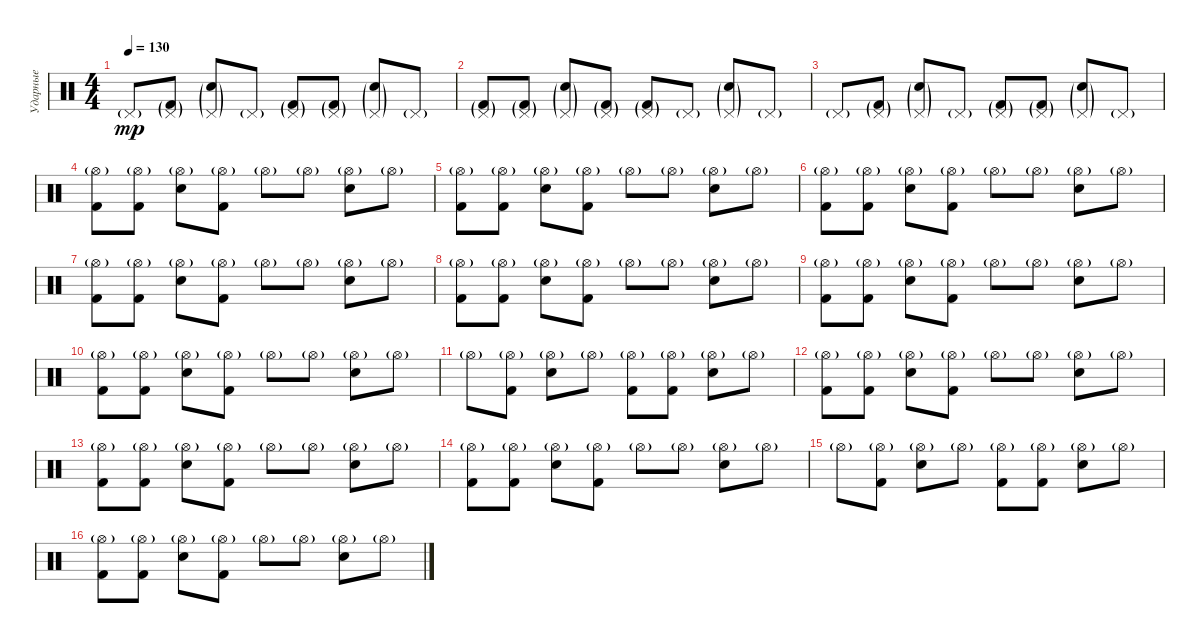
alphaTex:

\track ("Ударные" "Ударные") {instrument percussion}
\staff {score}
\articulation defaults
\ts (4 4)
\tempo 130
\clef neutral
\ks c "Pedal Hi-Hat (hit)"{g}.8{dy mp}
("Kick (hit) 2"{g} "Pedal Hi-Hat (hit)"{g}).8 ("Snare (hit) 2"{g} "Pedal Hi-Hat (hit)"{g}).8 "Pedal Hi-Hat (hit)"{g}.8 ("Kick (hit) 2"{g} "Pedal Hi-Hat (hit)"{g}).8 ("Kick (hit) 2"{g} "Pedal Hi-Hat (hit)"{g}).8 ("Snare (hit) 2"{g} "Pedal Hi-Hat (hit)"{g}).8 "Pedal Hi-Hat (hit)"{g}.8 |
("Kick (hit) 2"{g} "Pedal Hi-Hat (hit)"{g}).8 ("Kick (hit) 2"{g} "Pedal Hi-Hat (hit)"{g}).8 ("Snare (hit) 2"{g} "Pedal Hi-Hat (hit)"{g}).8 ("Kick (hit) 2"{g} "Pedal Hi-Hat (hit)"{g}).8 ("Kick (hit) 2"{g} "Pedal Hi-Hat (hit)"{g}).8 "Pedal Hi-Hat (hit)"{g}.8 ("Snare (hit) 2"{g} "Pedal Hi-Hat (hit)"{g}).8 "Pedal Hi-Hat (hit)"{g}.8 |
"Pedal Hi-Hat (hit)"{g}.8 ("Kick (hit) 2"{g} "Pedal Hi-Hat (hit)"{g}).8 ("Snare (hit) 2"{g} "Pedal Hi-Hat (hit)"{g}).8 "Pedal Hi-Hat (hit)"{g}.8 ("Kick (hit) 2"{g} "Pedal Hi-Hat (hit)"{g}).8 ("Kick (hit) 2"{g} "Pedal Hi-Hat (hit)"{g}).8 ("Snare (hit) 2"{g} "Pedal Hi-Hat (hit)"{g}).8 "Pedal Hi-Hat (hit)"{g}.8 |
("Kick (hit) 2" "Hi-Hat (open)"{g}).8{volume 13} ("Kick (hit) 2" "Hi-Hat (open)"{g}).8 ("Electric Snare (hit)" "Hi-Hat (open)"{g}).8 ("Kick (hit) 2" "Hi-Hat (open)"{g}).8 "Hi-Hat (open)"{g}.8 "Hi-Hat (open)"{g}.8 ("Electric Snare (hit)" "Hi-Hat (open)"{g}).8 "Hi-Hat (open)"{g}.8 |
("Kick (hit) 2" "Hi-Hat (open)"{g}).8 ("Kick (hit) 2" "Hi-Hat (open)"{g}).8 ("Electric Snare (hit)" "Hi-Hat (open)"{g}).8 ("Kick (hit) 2" "Hi-Hat (open)"{g}).8 "Hi-Hat (open)"{g}.8 "Hi-Hat (open)"{g}.8 ("Electric Snare (hit)" "Hi-Hat (open)"{g}).8 "Hi-Hat (open)"{g}.8 |
("Kick (hit) 2" "Hi-Hat (open)"{g}).8 ("Kick (hit) 2" "Hi-Hat (open)"{g}).8 ("Electric Snare (hit)" "Hi-Hat (open)"{g}).8 ("Kick (hit) 2" "Hi-Hat (open)"{g}).8 "Hi-Hat (open)"{g}.8 "Hi-Hat (open)"{g}.8 ("Electric Snare (hit)" "Hi-Hat (open)"{g}).8 "Hi-Hat (open)"{g}.8 |
("Kick (hit) 2" "Hi-Hat (open)"{g}).8 ("Kick (hit) 2" "Hi-Hat (open)"{g}).8 ("Electric Snare (hit)" "Hi-Hat (open)"{g}).8 ("Kick (hit) 2" "Hi-Hat (open)"{g}).8 "Hi-Hat (open)"{g}.8 "Hi-Hat (open)"{g}.8 ("Electric Snare (hit)" "Hi-Hat (open)"{g}).8 "Hi-Hat (open)"{g}.8 |
("Kick (hit) 2" "Hi-Hat (open)"{g}).8{volume 13} ("Kick (hit) 2" "Hi-Hat (open)"{g}).8 ("Electric Snare (hit)" "Hi-Hat (open)"{g}).8 ("Kick (hit) 2" "Hi-Hat (open)"{g}).8 "Hi-Hat (open)"{g}.8 "Hi-Hat (open)"{g}.8 ("Electric Snare (hit)" "Hi-Hat (open)"{g}).8 "Hi-Hat (open)"{g}.8 |
("Kick (hit) 2" "Hi-Hat (open)"{g}).8 ("Kick (hit) 2" "Hi-Hat (open)"{g}).8 ("Electric Snare (hit)" "Hi-Hat (open)"{g}).8 ("Kick (hit) 2" "Hi-Hat (open)"{g}).8 "Hi-Hat (open)"{g}.8 "Hi-Hat (open)"{g}.8 ("Electric Snare (hit)" "Hi-Hat (open)"{g}).8 "Hi-Hat (open)"{g}.8 |
("Kick (hit) 2" "Hi-Hat (open)"{g}).8 ("Kick (hit) 2" "Hi-Hat (open)"{g}).8 ("Electric Snare (hit)" "Hi-Hat (open)"{g}).8 ("Kick (hit) 2" "Hi-Hat (open)"{g}).8 "Hi-Hat (open)"{g}.8 "Hi-Hat (open)"{g}.8 ("Electric Snare (hit)" "Hi-Hat (open)"{g}).8 "Hi-Hat (open)"{g}.8 |
"Hi-Hat (open)"{g}.8 ("Kick (hit) 2" "Hi-Hat (open)"{g}).8 ("Electric Snare (hit)" "Hi-Hat (open)"{g}).8 "Hi-Hat (open)"{g}.8 ("Kick (hit) 2" "Hi-Hat (open)"{g}).8 ("Kick (hit) 2" "Hi-Hat (open)"{g}).8 ("Electric Snare (hit)" "Hi-Hat (open)"{g}).8 "Hi-Hat (open)"{g}.8 |
("Kick (hit) 2" "Hi-Hat (open)"{g}).8 ("Kick (hit) 2" "Hi-Hat (open)"{g}).8 ("Electric Snare (hit)" "Hi-Hat (open)"{g}).8 ("Kick (hit) 2" "Hi-Hat (open)"{g}).8 "Hi-Hat (open)"{g}.8 "Hi-Hat (open)"{g}.8 ("Electric Snare (hit)" "Hi-Hat (open)"{g}).8 "Hi-Hat (open)"{g}.8 |
("Kick (hit) 2" "Hi-Hat (open)"{g}).8 ("Kick (hit) 2" "Hi-Hat (open)"{g}).8 ("Electric Snare (hit)" "Hi-Hat (open)"{g}).8 ("Kick (hit) 2" "Hi-Hat (open)"{g}).8 "Hi-Hat (open)"{g}.8 "Hi-Hat (open)"{g}.8 ("Electric Snare (hit)" "Hi-Hat (open)"{g}).8 "Hi-Hat (open)"{g}.8 |
("Kick (hit) 2" "Hi-Hat (open)"{g}).8 ("Kick (hit) 2" "Hi-Hat (open)"{g}).8 ("Electric Snare (hit)" "Hi-Hat (open)"{g}).8 ("Kick (hit) 2" "Hi-Hat (open)"{g}).8 "Hi-Hat (open)"{g}.8 "Hi-Hat (open)"{g}.8 ("Electric Snare (hit)" "Hi-Hat (open)"{g}).8 "Hi-Hat (open)"{g}.8 |
"Hi-Hat (open)"{g}.8 ("Kick (hit) 2" "Hi-Hat (open)"{g}).8 ("Electric Snare (hit)" "Hi-Hat (open)"{g}).8 "Hi-Hat (open)"{g}.8 ("Kick (hit) 2" "Hi-Hat (open)"{g}).8 ("Kick (hit) 2" "Hi-Hat (open)"{g}).8 ("Electric Snare (hit)" "Hi-Hat (open)"{g}).8 "Hi-Hat (open)"{g}.8 |
("Kick (hit) 2" "Hi-Hat (open)"{g}).8 ("Kick (hit) 2" "Hi-Hat (open)"{g}).8 ("Electric Snare (hit)" "Hi-Hat (open)"{g}).8 ("Kick (hit) 2" "Hi-Hat (open)"{g}).8 "Hi-Hat (open)"{g}.8 "Hi-Hat (open)"{g}.8 ("Electric Snare (hit)" "Hi-Hat (open)"{g}).8 "Hi-Hat (open)"{g}.8
